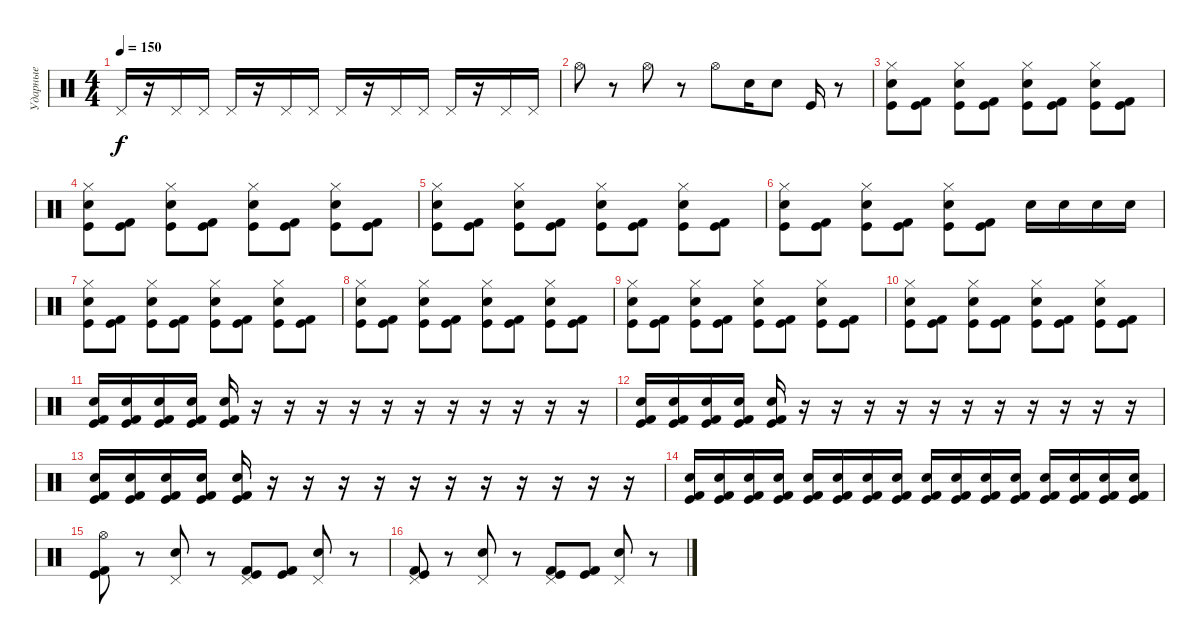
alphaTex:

\track ("Ударные" "Ударные") {instrument percussion}
\staff {score}
\articulation defaults
\ts (4 4)
\tempo 150
\clef neutral
\ks c "Pedal Hi-Hat (hit)".16{dy f}
r.16 "Pedal Hi-Hat (hit)".16 "Pedal Hi-Hat (hit)".16 "Pedal Hi-Hat (hit)".16 r.16 "Pedal Hi-Hat (hit)".16 "Pedal Hi-Hat (hit)".16 "Pedal Hi-Hat (hit)".16 r.16 "Pedal Hi-Hat (hit)".16 "Pedal Hi-Hat (hit)".16 "Pedal Hi-Hat (hit)".16 r.16 "Pedal Hi-Hat (hit)".16 "Pedal Hi-Hat (hit)".16 |
"Hi-Hat (open)".8{volume 13} r.8 "Hi-Hat (open)".8 r.8 "Hi-Hat (open)".8 "Electric Snare (hit)".16 "Electric Snare (hit)".8 "Kick (hit)".16 r.8 |
("Hi-Hat (closed)" "Electric Snare (hit)" "Kick (hit)").8 ("Kick (hit)" "Kick (hit) 2").8 ("Hi-Hat (closed)" "Electric Snare (hit)" "Kick (hit)").8 ("Kick (hit)" "Kick (hit) 2").8 ("Hi-Hat (closed)" "Electric Snare (hit)" "Kick (hit)").8 ("Kick (hit)" "Kick (hit) 2").8 ("Hi-Hat (closed)" "Electric Snare (hit)" "Kick (hit)").8 ("Kick (hit)" "Kick (hit) 2").8 |
("Hi-Hat (closed)" "Electric Snare (hit)" "Kick (hit)").8 ("Kick (hit)" "Kick (hit) 2").8 ("Hi-Hat (closed)" "Electric Snare (hit)" "Kick (hit)").8 ("Kick (hit)" "Kick (hit) 2").8 ("Hi-Hat (closed)" "Electric Snare (hit)" "Kick (hit)").8 ("Kick (hit)" "Kick (hit) 2").8 ("Hi-Hat (closed)" "Electric Snare (hit)" "Kick (hit)").8 ("Kick (hit)" "Kick (hit) 2").8 |
("Hi-Hat (closed)" "Electric Snare (hit)" "Kick (hit)").8 ("Kick (hit)" "Kick (hit) 2").8 ("Hi-Hat (closed)" "Electric Snare (hit)" "Kick (hit)").8 ("Kick (hit)" "Kick (hit) 2").8 ("Hi-Hat (closed)" "Electric Snare (hit)" "Kick (hit)").8 ("Kick (hit)" "Kick (hit) 2").8 ("Hi-Hat (closed)" "Electric Snare (hit)" "Kick (hit)").8 ("Kick (hit)" "Kick (hit) 2").8 |
("Hi-Hat (closed)" "Electric Snare (hit)" "Kick (hit)").8 ("Kick (hit)" "Kick (hit) 2").8 ("Hi-Hat (closed)" "Electric Snare (hit)" "Kick (hit)").8 ("Kick (hit)" "Kick (hit) 2").8 ("Hi-Hat (closed)" "Electric Snare (hit)" "Kick (hit)").8 ("Kick (hit)" "Kick (hit) 2").8 "Electric Snare (hit)".16 "Electric Snare (hit)".16 "Electric Snare (hit)".16 "Electric Snare (hit)".16 |
("Hi-Hat (closed)" "Electric Snare (hit)" "Kick (hit)").8 ("Kick (hit)" "Kick (hit) 2").8 ("Hi-Hat (closed)" "Electric Snare (hit)" "Kick (hit)").8 ("Kick (hit)" "Kick (hit) 2").8 ("Hi-Hat (closed)" "Electric Snare (hit)" "Kick (hit)").8 ("Kick (hit)" "Kick (hit) 2").8 ("Hi-Hat (closed)" "Electric Snare (hit)" "Kick (hit)").8 ("Kick (hit)" "Kick (hit) 2").8 |
("Hi-Hat (closed)" "Electric Snare (hit)" "Kick (hit)").8 ("Kick (hit)" "Kick (hit) 2").8 ("Hi-Hat (closed)" "Electric Snare (hit)" "Kick (hit)").8 ("Kick (hit)" "Kick (hit) 2").8 ("Hi-Hat (closed)" "Electric Snare (hit)" "Kick (hit)").8 ("Kick (hit)" "Kick (hit) 2").8 ("Hi-Hat (closed)" "Electric Snare (hit)" "Kick (hit)").8 ("Kick (hit)" "Kick (hit) 2").8 |
("Hi-Hat (closed)" "Electric Snare (hit)" "Kick (hit)").8 ("Kick (hit)" "Kick (hit) 2").8 ("Hi-Hat (closed)" "Electric Snare (hit)" "Kick (hit)").8 ("Kick (hit)" "Kick (hit) 2").8 ("Hi-Hat (closed)" "Electric Snare (hit)" "Kick (hit)").8 ("Kick (hit)" "Kick (hit) 2").8 ("Hi-Hat (closed)" "Electric Snare (hit)" "Kick (hit)").8 ("Kick (hit)" "Kick (hit) 2").8 |
("Hi-Hat (closed)" "Electric Snare (hit)" "Kick (hit)").8 ("Kick (hit)" "Kick (hit) 2").8 ("Hi-Hat (closed)" "Electric Snare (hit)" "Kick (hit)").8 ("Kick (hit)" "Kick (hit) 2").8 ("Hi-Hat (closed)" "Electric Snare (hit)" "Kick (hit)").8 ("Kick (hit)" "Kick (hit) 2").8 ("Hi-Hat (closed)" "Electric Snare (hit)" "Kick (hit)").8 ("Kick (hit)" "Kick (hit) 2").8 |
("Electric Snare (hit)" "Kick (hit)" "Kick (hit) 2").16 ("Electric Snare (hit)" "Kick (hit)" "Kick (hit) 2").16 ("Electric Snare (hit)" "Kick (hit)" "Kick (hit) 2").16 ("Electric Snare (hit)" "Kick (hit)" "Kick (hit) 2").16 ("Electric Snare (hit)" "Kick (hit)" "Kick (hit) 2").16 r.16 r.16 r.16 r.16 r.16 r.16 r.16 r.16 r.16 r.16 r.16 |
("Electric Snare (hit)" "Kick (hit)" "Kick (hit) 2").16 ("Electric Snare (hit)" "Kick (hit)" "Kick (hit) 2").16 ("Electric Snare (hit)" "Kick (hit)" "Kick (hit) 2").16 ("Electric Snare (hit)" "Kick (hit)" "Kick (hit) 2").16 ("Electric Snare (hit)" "Kick (hit)" "Kick (hit) 2").16 r.16 r.16 r.16 r.16 r.16 r.16 r.16 r.16 r.16 r.16 r.16 |
("Electric Snare (hit)" "Kick (hit)" "Kick (hit) 2").16 ("Electric Snare (hit)" "Kick (hit)" "Kick (hit) 2").16 ("Electric Snare (hit)" "Kick (hit)" "Kick (hit) 2").16 ("Electric Snare (hit)" "Kick (hit)" "Kick (hit) 2").16 ("Electric Snare (hit)" "Kick (hit)" "Kick (hit) 2").16 r.16 r.16 r.16 r.16 r.16 r.16 r.16 r.16 r.16 r.16 r.16 |
("Electric Snare (hit)" "Kick (hit)" "Kick (hit) 2").16 ("Electric Snare (hit)" "Kick (hit)" "Kick (hit) 2").16 ("Electric Snare (hit)" "Kick (hit)" "Kick (hit) 2").16 ("Electric Snare (hit)" "Kick (hit)" "Kick (hit) 2").16 ("Electric Snare (hit)" "Kick (hit)" "Kick (hit) 2").16 ("Electric Snare (hit)" "Kick (hit)" "Kick (hit) 2").16 ("Electric Snare (hit)" "Kick (hit)" "Kick (hit) 2").16 ("Electric Snare (hit)" "Kick (hit)" "Kick (hit) 2").16 ("Electric Snare (hit)" "Kick (hit)" "Kick (hit) 2").16 ("Electric Snare (hit)" "Kick (hit)" "Kick (hit) 2").16 ("Electric Snare (hit)" "Kick (hit)" "Kick (hit) 2").16 ("Electric Snare (hit)" "Kick (hit)" "Kick (hit) 2").16 ("Electric Snare (hit)" "Kick (hit)" "Kick (hit) 2").16 ("Electric Snare (hit)" "Kick (hit)" "Kick (hit) 2").16 ("Electric Snare (hit)" "Kick (hit)" "Kick (hit) 2").16 ("Electric Snare (hit)" "Kick (hit)" "Kick (hit) 2").16 |
("Hi-Hat (open)" "Kick (hit)" "Kick (hit) 2").8 r.8 ("Pedal Hi-Hat (hit)" "Electric Snare (hit)").8 r.8 ("Pedal Hi-Hat (hit)" "Kick (hit)" "Kick (hit) 2").8 ("Kick (hit)" "Kick (hit) 2").8 ("Pedal Hi-Hat (hit)" "Electric Snare (hit)").8 r.8 |
("Pedal Hi-Hat (hit)" "Kick (hit)" "Kick (hit) 2").8 r.8 ("Pedal Hi-Hat (hit)" "Electric Snare (hit)").8 r.8 ("Pedal Hi-Hat (hit)" "Kick (hit)" "Kick (hit) 2").8 ("Kick (hit)" "Kick (hit) 2").8 ("Pedal Hi-Hat (hit)" "Electric Snare (hit)").8 r.8
